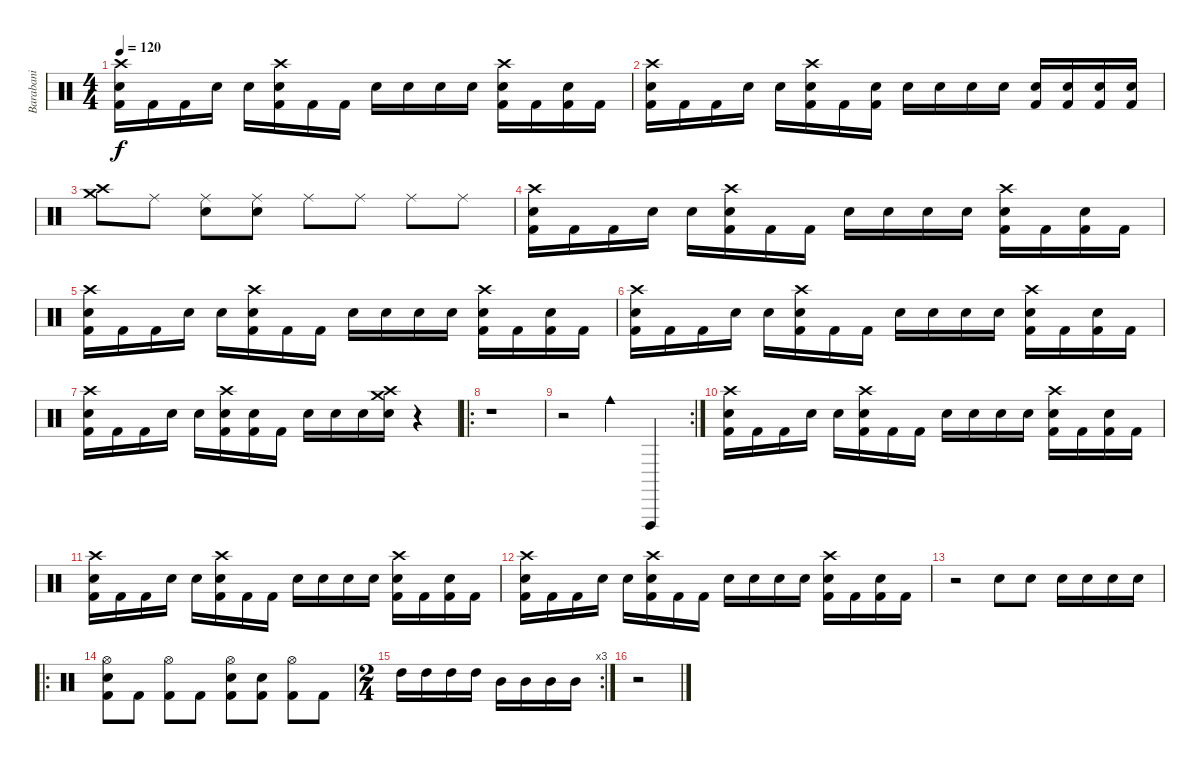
\track ("Barabani" "Barabani") {instrument percussion}
\staff {score}
\articulation defaults
\ts (4 4)
\tempo 120
\clef neutral
\ks c
("Crash high (hit)" "Electric Snare (hit)" "Kick (hit) 2").16{dy f} "Kick (hit) 2".16 "Kick (hit) 2".16 "Snare (hit)".16 "Snare (hit)".16 ("Crash high (hit)" "Electric Snare (hit)" "Kick (hit) 2").16 "Kick (hit) 2".16 "Kick (hit) 2".16 "Snare (hit)".16 "Snare (hit)".16 "Snare (hit)".16 "Snare (hit)".16 ("Crash high (hit)" "Electric Snare (hit)" "Kick (hit) 2").16 "Kick (hit) 2".16 ("Electric Snare (hit)" "Kick (hit) 2").16 "Kick (hit) 2".16 |
("Crash high (hit)" "Electric Snare (hit)" "Kick (hit) 2").16 "Kick (hit) 2".16 "Kick (hit) 2".16 "Snare (hit)".16 "Snare (hit)".16 ("Crash high (hit)" "Electric Snare (hit)" "Kick (hit) 2").16 "Kick (hit) 2".16 ("Electric Snare (hit)" "Kick (hit) 2").16 "Snare (hit)".16 "Snare (hit)".16 "Snare (hit)".16 "Snare (hit)".16 ("Electric Snare (hit)" "Kick (hit) 2").16 ("Electric Snare (hit)" "Kick (hit) 2").16 ("Electric Snare (hit)" "Kick (hit) 2").16 ("Electric Snare (hit)" "Kick (hit) 2").16 |
("Crash medium (hit)" "Crash high (hit)").8 "Ride (middle)".8 ("Electric Snare (hit)" "Ride (middle)").8 ("Electric Snare (hit)" "Ride (middle)").8 "Ride (middle)".8 "Ride (middle)".8 "Ride (middle)".8 "Ride (middle)".8 |
("Crash high (hit)" "Electric Snare (hit)" "Kick (hit) 2").16 "Kick (hit) 2".16 "Kick (hit) 2".16 "Snare (hit)".16 "Snare (hit)".16 ("Crash high (hit)" "Electric Snare (hit)" "Kick (hit) 2").16 "Kick (hit) 2".16 "Kick (hit) 2".16 "Snare (hit)".16 "Snare (hit)".16 "Snare (hit)".16 "Snare (hit)".16 ("Crash high (hit)" "Electric Snare (hit)" "Kick (hit) 2").16 "Kick (hit) 2".16 ("Electric Snare (hit)" "Kick (hit) 2").16 "Kick (hit) 2".16 |
("Crash high (hit)" "Electric Snare (hit)" "Kick (hit) 2").16 "Kick (hit) 2".16 "Kick (hit) 2".16 "Snare (hit)".16 "Snare (hit)".16 ("Crash high (hit)" "Electric Snare (hit)" "Kick (hit) 2").16 "Kick (hit) 2".16 "Kick (hit) 2".16 "Snare (hit)".16 "Snare (hit)".16 "Snare (hit)".16 "Snare (hit)".16 ("Crash high (hit)" "Electric Snare (hit)" "Kick (hit) 2").16 "Kick (hit) 2".16 ("Electric Snare (hit)" "Kick (hit) 2").16 "Kick (hit) 2".16 |
("Crash high (hit)" "Electric Snare (hit)" "Kick (hit) 2").16 "Kick (hit) 2".16 "Kick (hit) 2".16 "Snare (hit)".16 "Snare (hit)".16 ("Crash high (hit)" "Electric Snare (hit)" "Kick (hit) 2").16 "Kick (hit) 2".16 "Kick (hit) 2".16 "Snare (hit)".16 "Snare (hit)".16 "Snare (hit)".16 "Snare (hit)".16 ("Crash high (hit)" "Electric Snare (hit)" "Kick (hit) 2").16 "Kick (hit) 2".16 ("Electric Snare (hit)" "Kick (hit) 2").16 "Kick (hit) 2".16 |
("Crash high (hit)" "Electric Snare (hit)" "Kick (hit) 2").16 "Kick (hit) 2".16 "Kick (hit) 2".16 "Snare (hit)".16 "Snare (hit)".16 ("Crash high (hit)" "Electric Snare (hit)" "Kick (hit) 2").16 ("Electric Snare (hit)" "Kick (hit) 2").16 "Kick (hit) 2".16 "Snare (hit)".16 "Snare (hit)".16 "Snare (hit)".16 ("Crash medium (hit)" "Crash high (hit)" "Snare (hit)").16 r.4 |
\ro
r.1 |
\rc 2
r.2 "Cowbell medium (hit)".4 "Vibraslap (hit)".4 |
("Crash high (hit)" "Electric Snare (hit)" "Kick (hit) 2").16 "Kick (hit) 2".16 "Kick (hit) 2".16 "Snare (hit)".16 "Snare (hit)".16 ("Crash high (hit)" "Electric Snare (hit)" "Kick (hit) 2").16 "Kick (hit) 2".16 "Kick (hit) 2".16 "Snare (hit)".16 "Snare (hit)".16 "Snare (hit)".16 "Snare (hit)".16 ("Crash high (hit)" "Electric Snare (hit)" "Kick (hit) 2").16 "Kick (hit) 2".16 ("Electric Snare (hit)" "Kick (hit) 2").16 "Kick (hit) 2".16 |
("Crash high (hit)" "Electric Snare (hit)" "Kick (hit) 2").16 "Kick (hit) 2".16 "Kick (hit) 2".16 "Snare (hit)".16 "Snare (hit)".16 ("Crash high (hit)" "Electric Snare (hit)" "Kick (hit) 2").16 "Kick (hit) 2".16 "Kick (hit) 2".16 "Snare (hit)".16 "Snare (hit)".16 "Snare (hit)".16 "Snare (hit)".16 ("Crash high (hit)" "Electric Snare (hit)" "Kick (hit) 2").16 "Kick (hit) 2".16 ("Electric Snare (hit)" "Kick (hit) 2").16 "Kick (hit) 2".16 |
("Crash high (hit)" "Electric Snare (hit)" "Kick (hit) 2").16 "Kick (hit) 2".16 "Kick (hit) 2".16 "Snare (hit)".16 "Snare (hit)".16 ("Crash high (hit)" "Electric Snare (hit)" "Kick (hit) 2").16 "Kick (hit) 2".16 "Kick (hit) 2".16 "Snare (hit)".16 "Snare (hit)".16 "Snare (hit)".16 "Snare (hit)".16 ("Crash high (hit)" "Electric Snare (hit)" "Kick (hit) 2").16 "Kick (hit) 2".16 ("Electric Snare (hit)" "Kick (hit) 2").16 "Kick (hit) 2".16 |
r.2 "Electric Snare (hit)".8 "Electric Snare (hit)".8 "Electric Snare (hit)".16 "Electric Snare (hit)".16 "Electric Snare (hit)".16 "Electric Snare (hit)".16 |
\ro
("Hi-Hat (open)" "Electric Snare (hit)" "Kick (hit) 2").8 "Kick (hit) 2".8 ("Hi-Hat (open)" "Kick (hit) 2").8 "Kick (hit) 2".8 ("Hi-Hat (open)" "Electric Snare (hit)" "Kick (hit) 2").8 ("Electric Snare (hit)" "Kick (hit) 2").8 ("Hi-Hat (open)" "Kick (hit) 2").8 "Kick (hit) 2".8 |
\rc 3
\ts (2 4)
"High Tom (hit)".16 "High Tom (hit)".16 "High Tom (hit)".16 "High Tom (hit)".16 "Mid Tom (hit)".16 "Mid Tom (hit)".16 "Mid Tom (hit)".16 "Mid Tom (hit)".16 |
r.2
